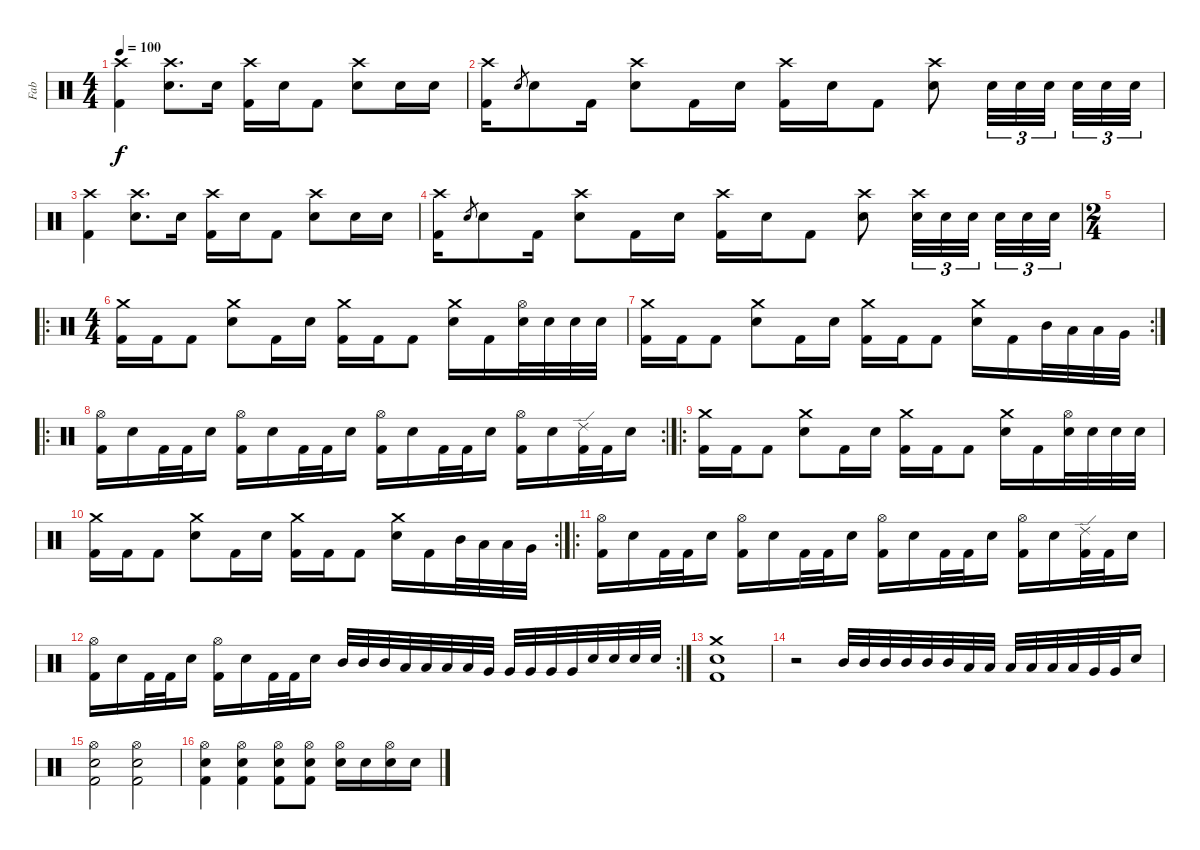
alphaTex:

\track ("Fab" "Fab") {instrument percussion}
\staff {score}
\articulation defaults
\ts (4 4)
\tempo 100
\clef neutral
\ks c
("Crash high (hit)" "Kick (hit) 2").4{dy f} ("Crash high (hit)" "Snare (hit) 2").8{d} "Snare (hit) 2".16 ("Crash high (hit)" "Kick (hit) 2").16 "Snare (hit) 2".16 "Kick (hit) 2".8 ("Crash high (hit)" "Snare (hit) 2").8 "Snare (hit) 2".16 "Snare (hit) 2".16 |
("Crash high (hit)" "Kick (hit) 2").16 "Snare (hit) 2".8{gr} "Snare (hit) 2".8 "Kick (hit) 2".16 ("Crash high (hit)" "Snare (hit) 2").8 "Kick (hit) 2".16 "Snare (hit) 2".16 ("Crash high (hit)" "Kick (hit) 2").16 "Snare (hit) 2".16 "Kick (hit) 2".8 ("Crash high (hit)" "Snare (hit) 2").8 "Snare (hit) 2".32{tu (3 2)} "Snare (hit) 2".32{tu (3 2)} "Snare (hit) 2".32{tu (3 2)} "Snare (hit) 2".32{tu (3 2)} "Snare (hit) 2".32{tu (3 2)} "Snare (hit) 2".32{tu (3 2)} |
("Crash high (hit)" "Kick (hit) 2").4 ("Crash high (hit)" "Snare (hit) 2").8{d} "Snare (hit) 2".16 ("Crash high (hit)" "Kick (hit) 2").16 "Snare (hit) 2".16 "Kick (hit) 2".8 ("Crash high (hit)" "Snare (hit) 2").8 "Snare (hit) 2".16 "Snare (hit) 2".16 |
("Crash high (hit)" "Kick (hit) 2").16 "Snare (hit) 2".8{gr} "Snare (hit) 2".8 "Kick (hit) 2".16 ("Crash high (hit)" "Snare (hit) 2").8 "Kick (hit) 2".16 "Snare (hit) 2".16 ("Crash high (hit)" "Kick (hit) 2").16 "Snare (hit) 2".16 "Kick (hit) 2".8 ("Crash high (hit)" "Snare (hit) 2").8 ("Crash high (hit)" "Snare (hit) 2").32{tu (3 2)} "Snare (hit) 2".32{tu (3 2)} "Snare (hit) 2".32{tu (3 2)} "Snare (hit) 2".32{tu (3 2)} "Snare (hit) 2".32{tu (3 2)} "Snare (hit) 2".32{tu (3 2)} |
\ts (2 4)
|
\ro
\ts (4 4)
("Crash medium (hit)" "Kick (hit) 2").16 "Kick (hit) 2".16 "Kick (hit) 2".8 ("Crash medium (hit)" "Snare (hit) 2").8 "Kick (hit) 2".16 "Snare (hit) 2".16 ("Crash medium (hit)" "Kick (hit) 2").16 "Kick (hit) 2".16 "Kick (hit) 2".8 ("Crash medium (hit)" "Snare (hit) 2").16 "Kick (hit) 2".16 ("Hi-Hat (open)" "Snare (hit) 2").32 "Snare (hit) 2".32 "Snare (hit) 2".32 "Snare (hit) 2".32 |
\rc 2
("Crash medium (hit)" "Kick (hit) 2").16 "Kick (hit) 2".16 "Kick (hit) 2".8 ("Crash medium (hit)" "Snare (hit) 2").8 "Kick (hit) 2".16 "Snare (hit) 2".16 ("Crash medium (hit)" "Kick (hit) 2").16 "Kick (hit) 2".16 "Kick (hit) 2".8 ("Crash medium (hit)" "Snare (hit) 2").16 "Kick (hit) 2".16 "Mid Tom (hit)".32 "Low Tom (hit)".32 "Low Tom (hit)".32 "Very Low Tom (hit)".32 |
\ro
\rc 2
("Hi-Hat (open)" "Kick (hit) 2").16 "Snare (hit) 2".16 "Kick (hit) 2".32 "Kick (hit) 2".32 "Snare (hit) 2".16 ("Hi-Hat (open)" "Kick (hit) 2").16 "Snare (hit) 2".16 "Kick (hit) 2".32 "Kick (hit) 2".32 "Snare (hit) 2".16 ("Hi-Hat (open)" "Kick (hit) 2").16 "Snare (hit) 2".16 "Kick (hit) 2".32 "Kick (hit) 2".32 "Snare (hit) 2".16 ("Hi-Hat (open)" "Kick (hit) 2").16 "Snare (hit) 2".16 ("Ride (edge) 2" "Kick (hit) 2").32 "Kick (hit) 2".32 "Snare (hit) 2".16 |
\ro
("Crash medium (hit)" "Kick (hit) 2").16 "Kick (hit) 2".16 "Kick (hit) 2".8 ("Crash medium (hit)" "Snare (hit) 2").8 "Kick (hit) 2".16 "Snare (hit) 2".16 ("Crash medium (hit)" "Kick (hit) 2").16 "Kick (hit) 2".16 "Kick (hit) 2".8 ("Crash medium (hit)" "Snare (hit) 2").16 "Kick (hit) 2".16 ("Hi-Hat (open)" "Snare (hit) 2").32 "Snare (hit) 2".32 "Snare (hit) 2".32 "Snare (hit) 2".32 |
\rc 2
("Crash medium (hit)" "Kick (hit) 2").16 "Kick (hit) 2".16 "Kick (hit) 2".8 ("Crash medium (hit)" "Snare (hit) 2").8 "Kick (hit) 2".16 "Snare (hit) 2".16 ("Crash medium (hit)" "Kick (hit) 2").16 "Kick (hit) 2".16 "Kick (hit) 2".8 ("Crash medium (hit)" "Snare (hit) 2").16 "Kick (hit) 2".16 "Mid Tom (hit)".32 "Low Tom (hit)".32 "Low Tom (hit)".32 "Very Low Tom (hit)".32 |
\ro
("Hi-Hat (open)" "Kick (hit) 2").16 "Snare (hit) 2".16 "Kick (hit) 2".32 "Kick (hit) 2".32 "Snare (hit) 2".16 ("Hi-Hat (open)" "Kick (hit) 2").16 "Snare (hit) 2".16 "Kick (hit) 2".32 "Kick (hit) 2".32 "Snare (hit) 2".16 ("Hi-Hat (open)" "Kick (hit) 2").16 "Snare (hit) 2".16 "Kick (hit) 2".32 "Kick (hit) 2".32 "Snare (hit) 2".16 ("Hi-Hat (open)" "Kick (hit) 2").16 "Snare (hit) 2".16 ("Ride (edge) 2" "Kick (hit) 2").32 "Kick (hit) 2".32 "Snare (hit) 2".16 |
\rc 2
("Hi-Hat (open)" "Kick (hit) 2").16 "Snare (hit) 2".16 "Kick (hit) 2".32 "Kick (hit) 2".32 "Snare (hit) 2".16 ("Hi-Hat (open)" "Kick (hit) 2").16 "Snare (hit) 2".16 "Kick (hit) 2".32 "Kick (hit) 2".32 "Snare (hit) 2".16 "Mid Tom (hit)".32 "Mid Tom (hit)".32 "Mid Tom (hit)".32 "Low Tom (hit)".32 "Low Tom (hit)".32 "Low Tom (hit)".32 "Low Tom (hit)".32 "Very Low Tom (hit)".32 "Very Low Tom (hit)".32 "Very Low Tom (hit)".32 "Very Low Tom (hit)".32 "Very Low Tom (hit)".32 "Snare (hit) 2".32 "Snare (hit) 2".32 "Snare (hit) 2".32 "Snare (hit) 2".32 |
("Crash medium (hit)" "Snare (hit) 2" "Kick (hit) 2").1 |
r.2 "Mid Tom (hit)".32 "Mid Tom (hit)".32 "Mid Tom (hit)".32 "Mid Tom (hit)".32 "Mid Tom (hit)".32 "Mid Tom (hit)".32 "Low Tom (hit)".32 "Low Tom (hit)".32 "Low Tom (hit)".32 "Low Tom (hit)".32 "Low Tom (hit)".32 "Low Tom (hit)".32 "Very Low Tom (hit)".32 "Very Low Tom (hit)".32 "Snare (hit) 2".16 |
("Hi-Hat (open)" "Snare (hit) 2" "Kick (hit) 2").2 ("Hi-Hat (open)" "Snare (hit) 2" "Kick (hit) 2").2 |
("Hi-Hat (open)" "Snare (hit) 2" "Kick (hit) 2").4 ("Hi-Hat (open)" "Snare (hit) 2" "Kick (hit) 2").4 ("Hi-Hat (open)" "Snare (hit) 2" "Kick (hit) 2").8 ("Hi-Hat (open)" "Snare (hit) 2" "Kick (hit) 2").8 ("Hi-Hat (open)" "Snare (hit) 2").16 "Snare (hit) 2".16 ("Hi-Hat (open)" "Snare (hit) 2").16 "Snare (hit) 2".16
